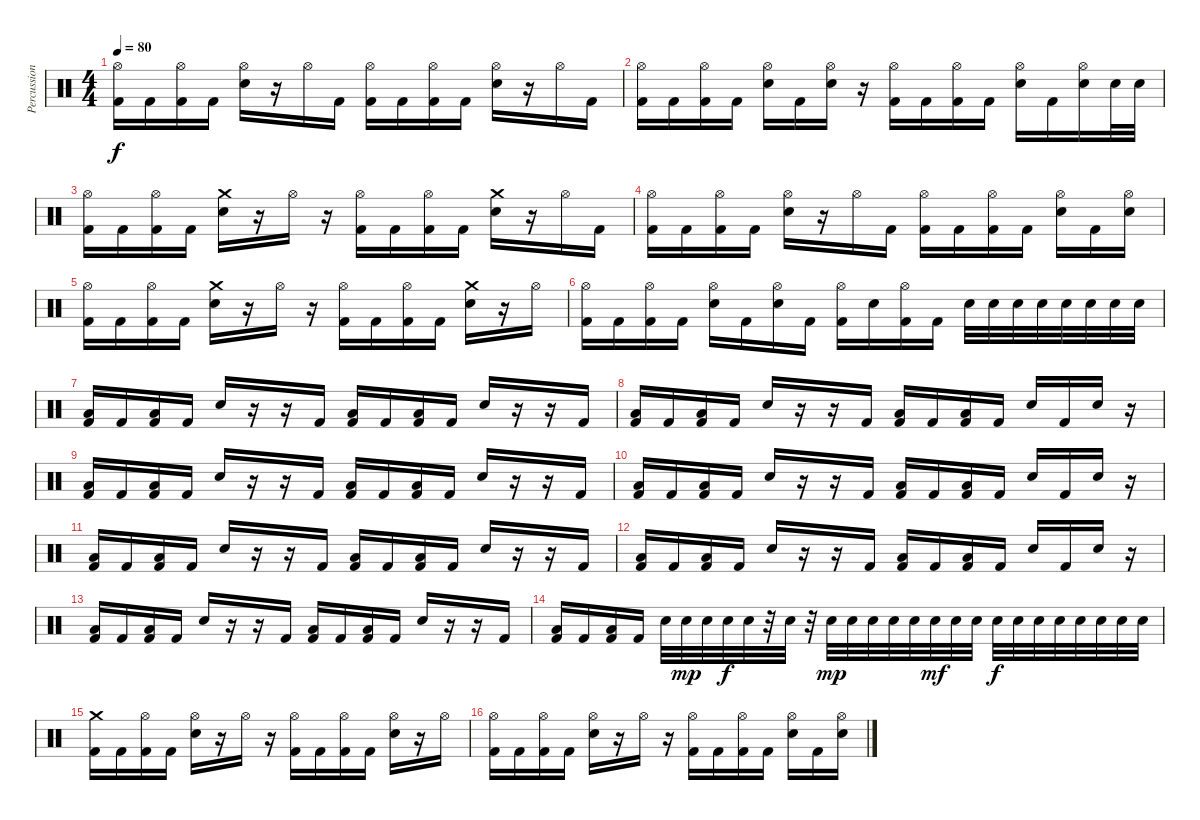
\track ("Percussion" "Percussion") {instrument percussion}
\staff {score}
\articulation defaults
\ts (4 4)
\tempo 80
\clef neutral
\ks c
("Hi-Hat (open)" "Kick (hit) 2").16{dy f} "Kick (hit) 2".16 ("Hi-Hat (open)" "Kick (hit) 2").16 "Kick (hit) 2".16 ("Hi-Hat (open)" "Electric Snare (hit)").16 r.16 "Hi-Hat (open)".16 "Kick (hit) 2".16 ("Hi-Hat (open)" "Kick (hit) 2").16 "Kick (hit) 2".16 ("Hi-Hat (open)" "Kick (hit) 2").16 "Kick (hit) 2".16 ("Hi-Hat (open)" "Electric Snare (hit)").16 r.16 "Hi-Hat (open)".16 "Kick (hit) 2".16 |
("Hi-Hat (open)" "Kick (hit) 2").16 "Kick (hit) 2".16 ("Hi-Hat (open)" "Kick (hit) 2").16 "Kick (hit) 2".16 ("Hi-Hat (open)" "Electric Snare (hit)").16 "Kick (hit) 2".16 ("Hi-Hat (open)" "Electric Snare (hit)").16 r.16 ("Hi-Hat (open)" "Kick (hit) 2").16 "Kick (hit) 2".16 ("Hi-Hat (open)" "Kick (hit) 2").16 "Kick (hit) 2".16 ("Hi-Hat (open)" "Electric Snare (hit)").16 "Kick (hit) 2".16 ("Hi-Hat (open)" "Electric Snare (hit)").16 "Electric Snare (hit)".32 "Electric Snare (hit)".32 |
("Hi-Hat (open)" "Kick (hit) 2").16 "Kick (hit) 2".16 ("Hi-Hat (open)" "Kick (hit) 2").16 "Kick (hit) 2".16 ("Crash medium (hit)" "Electric Snare (hit)").16 r.16 "Hi-Hat (open)".16 r.16 ("Hi-Hat (open)" "Kick (hit) 2").16 "Kick (hit) 2".16 ("Hi-Hat (open)" "Kick (hit) 2").16 "Kick (hit) 2".16 ("Crash medium (hit)" "Electric Snare (hit)").16 r.16 "Hi-Hat (open)".16 "Kick (hit) 2".16 |
("Hi-Hat (open)" "Kick (hit) 2").16 "Kick (hit) 2".16 ("Hi-Hat (open)" "Kick (hit) 2").16 "Kick (hit) 2".16 ("Hi-Hat (open)" "Electric Snare (hit)").16 r.16 "Hi-Hat (open)".16 "Kick (hit) 2".16 ("Hi-Hat (open)" "Kick (hit) 2").16 "Kick (hit) 2".16 ("Hi-Hat (open)" "Kick (hit) 2").16 "Kick (hit) 2".16 ("Hi-Hat (open)" "Electric Snare (hit)").16 "Kick (hit) 2".16 ("Hi-Hat (open)" "Electric Snare (hit)").16 |
("Hi-Hat (open)" "Kick (hit) 2").16 "Kick (hit) 2".16 ("Hi-Hat (open)" "Kick (hit) 2").16 "Kick (hit) 2".16 ("Crash medium (hit)" "Electric Snare (hit)").16 r.16 "Hi-Hat (open)".16 r.16 ("Hi-Hat (open)" "Kick (hit) 2").16 "Kick (hit) 2".16 ("Hi-Hat (open)" "Kick (hit) 2").16 "Kick (hit) 2".16 ("Crash medium (hit)" "Electric Snare (hit)").16 r.16 "Hi-Hat (open)".16 |
("Hi-Hat (open)" "Kick (hit) 2").16 "Kick (hit) 2".16 ("Hi-Hat (open)" "Kick (hit) 2").16 "Kick (hit) 2".16 ("Hi-Hat (open)" "Electric Snare (hit)").16 "Kick (hit) 2".16 ("Hi-Hat (open)" "Electric Snare (hit)").16 "Kick (hit) 2".16 ("Hi-Hat (open)" "Kick (hit) 2").16 "Electric Snare (hit)".16 ("Hi-Hat (open)" "Kick (hit) 2").16 "Kick (hit) 2".16 "Electric Snare (hit)".32 "Electric Snare (hit)".32 "Electric Snare (hit)".32 "Electric Snare (hit)".32 "Electric Snare (hit)".32 "Electric Snare (hit)".32 "Electric Snare (hit)".32 "Electric Snare (hit)".32 |
("Low Floor Tom (hit)" "Kick (hit) 2").16 "Kick (hit) 2".16 ("Low Floor Tom (hit)" "Kick (hit) 2").16 "Kick (hit) 2".16 "Electric Snare (hit)".16 r.16 r.16 "Kick (hit) 2".16 ("Low Floor Tom (hit)" "Kick (hit) 2").16 "Kick (hit) 2".16 ("Low Floor Tom (hit)" "Kick (hit) 2").16 "Kick (hit) 2".16 "Electric Snare (hit)".16 r.16 r.16 "Kick (hit) 2".16 |
("Low Floor Tom (hit)" "Kick (hit) 2").16 "Kick (hit) 2".16 ("Low Floor Tom (hit)" "Kick (hit) 2").16 "Kick (hit) 2".16 "Electric Snare (hit)".16 r.16 r.16 "Kick (hit) 2".16 ("Low Floor Tom (hit)" "Kick (hit) 2").16 "Kick (hit) 2".16 ("Low Floor Tom (hit)" "Kick (hit) 2").16 "Kick (hit) 2".16 "Electric Snare (hit)".16 "Kick (hit) 2".16 "Electric Snare (hit)".16 r.16 |
("Low Floor Tom (hit)" "Kick (hit) 2").16 "Kick (hit) 2".16 ("Low Floor Tom (hit)" "Kick (hit) 2").16 "Kick (hit) 2".16 "Electric Snare (hit)".16 r.16 r.16 "Kick (hit) 2".16 ("Low Floor Tom (hit)" "Kick (hit) 2").16 "Kick (hit) 2".16 ("Low Floor Tom (hit)" "Kick (hit) 2").16 "Kick (hit) 2".16 "Electric Snare (hit)".16 r.16 r.16 "Kick (hit) 2".16 |
("Low Floor Tom (hit)" "Kick (hit) 2").16 "Kick (hit) 2".16 ("Low Floor Tom (hit)" "Kick (hit) 2").16 "Kick (hit) 2".16 "Electric Snare (hit)".16 r.16 r.16 "Kick (hit) 2".16 ("Low Floor Tom (hit)" "Kick (hit) 2").16 "Kick (hit) 2".16 ("Low Floor Tom (hit)" "Kick (hit) 2").16 "Kick (hit) 2".16 "Electric Snare (hit)".16 "Kick (hit) 2".16 "Electric Snare (hit)".16 r.16 |
("Low Floor Tom (hit)" "Kick (hit) 2").16 "Kick (hit) 2".16 ("Low Floor Tom (hit)" "Kick (hit) 2").16 "Kick (hit) 2".16 "Electric Snare (hit)".16 r.16 r.16 "Kick (hit) 2".16 ("Low Floor Tom (hit)" "Kick (hit) 2").16 "Kick (hit) 2".16 ("Low Floor Tom (hit)" "Kick (hit) 2").16 "Kick (hit) 2".16 "Electric Snare (hit)".16 r.16 r.16 "Kick (hit) 2".16 |
("Low Floor Tom (hit)" "Kick (hit) 2").16 "Kick (hit) 2".16 ("Low Floor Tom (hit)" "Kick (hit) 2").16 "Kick (hit) 2".16 "Electric Snare (hit)".16 r.16 r.16 "Kick (hit) 2".16 ("Low Floor Tom (hit)" "Kick (hit) 2").16 "Kick (hit) 2".16 ("Low Floor Tom (hit)" "Kick (hit) 2").16 "Kick (hit) 2".16 "Electric Snare (hit)".16 "Kick (hit) 2".16 "Electric Snare (hit)".16 r.16 |
("Low Floor Tom (hit)" "Kick (hit) 2").16 "Kick (hit) 2".16 ("Low Floor Tom (hit)" "Kick (hit) 2").16 "Kick (hit) 2".16 "Electric Snare (hit)".16 r.16 r.16 "Kick (hit) 2".16 ("Low Floor Tom (hit)" "Kick (hit) 2").16 "Kick (hit) 2".16 ("Low Floor Tom (hit)" "Kick (hit) 2").16 "Kick (hit) 2".16 "Electric Snare (hit)".16 r.16 r.16 "Kick (hit) 2".16 |
("Low Floor Tom (hit)" "Kick (hit) 2").16 "Kick (hit) 2".16 ("Low Floor Tom (hit)" "Kick (hit) 2").16 "Kick (hit) 2".16 "Electric Snare (hit)".32 "Electric Snare (hit)".32{dy mp} "Electric Snare (hit)".32 "Electric Snare (hit)".32{dy f} "Electric Snare (hit)".32 r.32 "Electric Snare (hit)".32 r.32 "Electric Snare (hit)".32{dy mp} "Electric Snare (hit)".32 "Electric Snare (hit)".32 "Electric Snare (hit)".32 "Electric Snare (hit)".32 "Electric Snare (hit)".32{dy mf} "Electric Snare (hit)".32 "Electric Snare (hit)".32 "Electric Snare (hit)".32{dy f} "Electric Snare (hit)".32 "Electric Snare (hit)".32 "Electric Snare (hit)".32 "Electric Snare (hit)".32 "Electric Snare (hit)".32 "Electric Snare (hit)".32 "Electric Snare (hit)".32 |
("Crash medium (hit)" "Kick (hit) 2").16 "Kick (hit) 2".16 ("Hi-Hat (open)" "Kick (hit) 2").16 "Kick (hit) 2".16 ("Hi-Hat (open)" "Electric Snare (hit)").16 r.16 "Hi-Hat (open)".16 r.16 ("Hi-Hat (open)" "Kick (hit) 2").16 "Kick (hit) 2".16 ("Hi-Hat (open)" "Kick (hit) 2").16 "Kick (hit) 2".16 ("Hi-Hat (open)" "Electric Snare (hit)").16 r.16 "Hi-Hat (open)".16 |
("Hi-Hat (open)" "Kick (hit) 2").16 "Kick (hit) 2".16 ("Hi-Hat (open)" "Kick (hit) 2").16 "Kick (hit) 2".16 ("Hi-Hat (open)" "Electric Snare (hit)").16 r.16 "Hi-Hat (open)".16 r.16 ("Hi-Hat (open)" "Kick (hit) 2").16 "Kick (hit) 2".16 ("Hi-Hat (open)" "Kick (hit) 2").16 "Kick (hit) 2".16 ("Hi-Hat (open)" "Electric Snare (hit)").16 "Kick (hit) 2".16 ("Hi-Hat (open)" "Electric Snare (hit)").16
